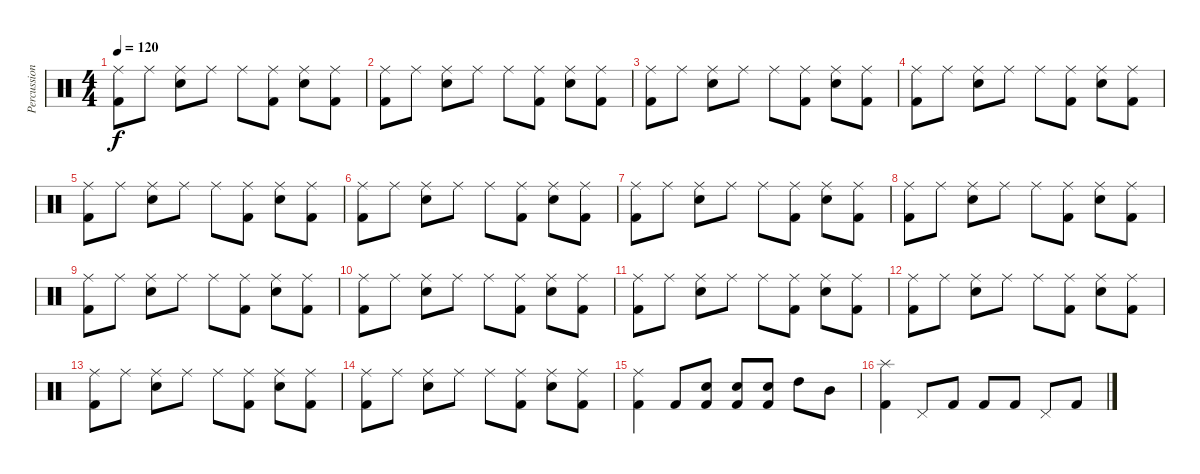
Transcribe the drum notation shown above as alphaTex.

\track ("Percussion" "Percussion") {instrument percussion}
\staff {score}
\articulation defaults
\ts (4 4)
\tempo 120
\clef neutral
\ks c
("Ride (middle)" "Kick (hit) 2").8{dy f} "Ride (middle)".8 ("Ride (middle)" "Snare (hit) 2").8 "Ride (middle)".8 "Ride (middle)".8 ("Ride (middle)" "Kick (hit) 2").8 ("Ride (middle)" "Snare (hit) 2").8 ("Ride (middle)" "Kick (hit) 2").8 |
("Ride (middle)" "Kick (hit) 2").8 "Ride (middle)".8 ("Ride (middle)" "Snare (hit) 2").8 "Ride (middle)".8 "Ride (middle)".8 ("Ride (middle)" "Kick (hit) 2").8 ("Ride (middle)" "Snare (hit) 2").8 ("Ride (middle)" "Kick (hit) 2").8 |
("Ride (middle)" "Kick (hit) 2").8 "Ride (middle)".8 ("Ride (middle)" "Snare (hit) 2").8 "Ride (middle)".8 "Ride (middle)".8 ("Ride (middle)" "Kick (hit) 2").8 ("Ride (middle)" "Snare (hit) 2").8 ("Ride (middle)" "Kick (hit) 2").8 |
("Ride (middle)" "Kick (hit) 2").8 "Ride (middle)".8 ("Ride (middle)" "Snare (hit) 2").8 "Ride (middle)".8 "Ride (middle)".8 ("Ride (middle)" "Kick (hit) 2").8 ("Ride (middle)" "Snare (hit) 2").8 ("Ride (middle)" "Kick (hit) 2").8 |
("Ride (middle)" "Kick (hit) 2").8 "Ride (middle)".8 ("Ride (middle)" "Snare (hit) 2").8 "Ride (middle)".8 "Ride (middle)".8 ("Ride (middle)" "Kick (hit) 2").8 ("Ride (middle)" "Snare (hit) 2").8 ("Ride (middle)" "Kick (hit) 2").8 |
("Ride (middle)" "Kick (hit) 2").8 "Ride (middle)".8 ("Ride (middle)" "Snare (hit) 2").8 "Ride (middle)".8 "Ride (middle)".8 ("Ride (middle)" "Kick (hit) 2").8 ("Ride (middle)" "Snare (hit) 2").8 ("Ride (middle)" "Kick (hit) 2").8 |
("Ride (middle)" "Kick (hit) 2").8 "Ride (middle)".8 ("Ride (middle)" "Snare (hit) 2").8 "Ride (middle)".8 "Ride (middle)".8 ("Ride (middle)" "Kick (hit) 2").8 ("Ride (middle)" "Snare (hit) 2").8 ("Ride (middle)" "Kick (hit) 2").8 |
("Ride (middle)" "Kick (hit) 2").8 "Ride (middle)".8 ("Ride (middle)" "Snare (hit) 2").8 "Ride (middle)".8 "Ride (middle)".8 ("Ride (middle)" "Kick (hit) 2").8 ("Ride (middle)" "Snare (hit) 2").8 ("Ride (middle)" "Kick (hit) 2").8 |
("Ride (middle)" "Kick (hit) 2").8 "Ride (middle)".8 ("Ride (middle)" "Snare (hit) 2").8 "Ride (middle)".8 "Ride (middle)".8 ("Ride (middle)" "Kick (hit) 2").8 ("Ride (middle)" "Snare (hit) 2").8 ("Ride (middle)" "Kick (hit) 2").8 |
("Ride (middle)" "Kick (hit) 2").8 "Ride (middle)".8 ("Ride (middle)" "Snare (hit) 2").8 "Ride (middle)".8 "Ride (middle)".8 ("Ride (middle)" "Kick (hit) 2").8 ("Ride (middle)" "Snare (hit) 2").8 ("Ride (middle)" "Kick (hit) 2").8 |
("Ride (middle)" "Kick (hit) 2").8 "Ride (middle)".8 ("Ride (middle)" "Snare (hit) 2").8 "Ride (middle)".8 "Ride (middle)".8 ("Ride (middle)" "Kick (hit) 2").8 ("Ride (middle)" "Snare (hit) 2").8 ("Ride (middle)" "Kick (hit) 2").8 |
("Ride (middle)" "Kick (hit) 2").8 "Ride (middle)".8 ("Ride (middle)" "Snare (hit) 2").8 "Ride (middle)".8 "Ride (middle)".8 ("Ride (middle)" "Kick (hit) 2").8 ("Ride (middle)" "Snare (hit) 2").8 ("Ride (middle)" "Kick (hit) 2").8 |
("Ride (middle)" "Kick (hit) 2").8 "Ride (middle)".8 ("Ride (middle)" "Snare (hit) 2").8 "Ride (middle)".8 "Ride (middle)".8 ("Ride (middle)" "Kick (hit) 2").8 ("Ride (middle)" "Snare (hit) 2").8 ("Ride (middle)" "Kick (hit) 2").8 |
("Ride (middle)" "Kick (hit) 2").8 "Ride (middle)".8 ("Ride (middle)" "Snare (hit) 2").8 "Ride (middle)".8 "Ride (middle)".8 ("Ride (middle)" "Kick (hit) 2").8 ("Ride (middle)" "Snare (hit) 2").8 ("Ride (middle)" "Kick (hit) 2").8 |
("Ride (middle)" "Kick (hit) 2").4 "Kick (hit) 2".8 ("Snare (hit) 2" "Kick (hit) 2").8 ("Snare (hit) 2" "Kick (hit) 2").8 ("Snare (hit) 2" "Kick (hit) 2").8 "High Tom (hit)".8 "Mid Tom (hit)".8 |
("Splash (hit)" "Kick (hit) 2").4 "Pedal Hi-Hat (hit)".8 "Kick (hit) 2".8 "Kick (hit) 2".8 "Kick (hit) 2".8 "Pedal Hi-Hat (hit)".8 "Kick (hit) 2".8
